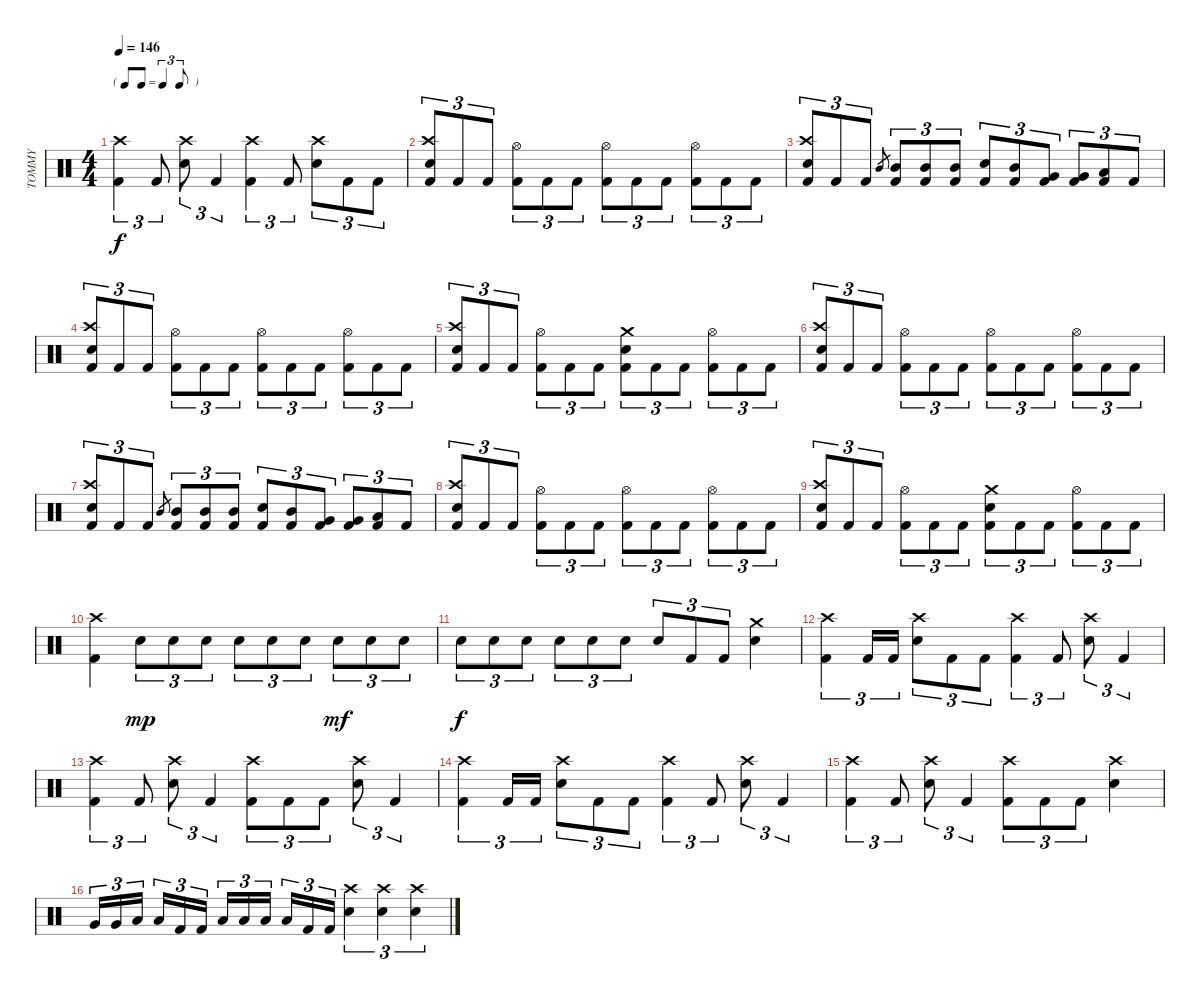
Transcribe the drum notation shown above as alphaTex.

\track ("TOMMY" "TOMMY") {instrument percussion}
\staff {score}
\articulation defaults
\ts (4 4)
\tf triplet8th
\tempo 146
\clef neutral
\ks c
("Kick (hit) 2" "Crash high (hit)").4{tu (3 2) dy f} "Kick (hit) 2".8{tu (3 2)} ("Snare (hit) 2" "Crash high (hit)").8{tu (3 2)} "Kick (hit) 2".4{tu (3 2)} ("Kick (hit) 2" "Crash high (hit)").4{tu (3 2)} "Kick (hit) 2".8{tu (3 2)} ("Snare (hit) 2" "Crash high (hit)").8{tu (3 2)} "Kick (hit) 2".8{tu (3 2)} "Kick (hit) 2".8{tu (3 2)} |
("Snare (hit) 2" "Kick (hit) 2" "Crash high (hit)").8{tu (3 2)} "Kick (hit) 2".8{tu (3 2)} "Kick (hit) 2".8{tu (3 2)} ("Kick (hit) 2" "Hi-Hat (open)").8{tu (3 2)} "Kick (hit) 2".8{tu (3 2)} "Kick (hit) 2".8{tu (3 2)} ("Kick (hit) 2" "Hi-Hat (open)").8{tu (3 2)} "Kick (hit) 2".8{tu (3 2)} "Kick (hit) 2".8{tu (3 2)} ("Kick (hit) 2" "Hi-Hat (open)").8{tu (3 2)} "Kick (hit) 2".8{tu (3 2)} "Kick (hit) 2".8{tu (3 2)} |
("Snare (hit) 2" "Kick (hit) 2" "Crash high (hit)").8{tu (3 2)} "Kick (hit) 2".8{tu (3 2)} "Kick (hit) 2".8{tu (3 2)} "Mid Tom (hit)".8{gr} ("Kick (hit) 2" "Mid Tom (hit)").8{tu (3 2)} ("Kick (hit) 2" "Mid Tom (hit)").8{tu (3 2)} ("Kick (hit) 2" "Mid Tom (hit)").8{tu (3 2)} ("Snare (hit) 2" "Kick (hit) 2").8{tu (3 2)} ("Kick (hit) 2" "Mid Tom (hit)").8{tu (3 2)} ("Kick (hit) 2" "Very Low Tom (hit)").8{tu (3 2)} ("Kick (hit) 2" "Very Low Tom (hit)").8{tu (3 2)} ("Kick (hit) 2" "Low Floor Tom (hit)").8{tu (3 2)} "Kick (hit) 2".8{tu (3 2)} |
("Snare (hit) 2" "Kick (hit) 2" "Crash high (hit)").8{tu (3 2)} "Kick (hit) 2".8{tu (3 2)} "Kick (hit) 2".8{tu (3 2)} ("Kick (hit) 2" "Hi-Hat (open)").8{tu (3 2)} "Kick (hit) 2".8{tu (3 2)} "Kick (hit) 2".8{tu (3 2)} ("Kick (hit) 2" "Hi-Hat (open)").8{tu (3 2)} "Kick (hit) 2".8{tu (3 2)} "Kick (hit) 2".8{tu (3 2)} ("Kick (hit) 2" "Hi-Hat (open)").8{tu (3 2)} "Kick (hit) 2".8{tu (3 2)} "Kick (hit) 2".8{tu (3 2)} |
("Snare (hit) 2" "Kick (hit) 2" "Crash high (hit)").8{tu (3 2)} "Kick (hit) 2".8{tu (3 2)} "Kick (hit) 2".8{tu (3 2)} ("Kick (hit) 2" "Hi-Hat (open)").8{tu (3 2)} "Kick (hit) 2".8{tu (3 2)} "Kick (hit) 2".8{tu (3 2)} ("Snare (hit) 2" "Kick (hit) 2" "Crash medium (hit)").8{tu (3 2)} "Kick (hit) 2".8{tu (3 2)} "Kick (hit) 2".8{tu (3 2)} ("Kick (hit) 2" "Hi-Hat (open)").8{tu (3 2)} "Kick (hit) 2".8{tu (3 2)} "Kick (hit) 2".8{tu (3 2)} |
("Snare (hit) 2" "Kick (hit) 2" "Crash high (hit)").8{tu (3 2)} "Kick (hit) 2".8{tu (3 2)} "Kick (hit) 2".8{tu (3 2)} ("Kick (hit) 2" "Hi-Hat (open)").8{tu (3 2)} "Kick (hit) 2".8{tu (3 2)} "Kick (hit) 2".8{tu (3 2)} ("Kick (hit) 2" "Hi-Hat (open)").8{tu (3 2)} "Kick (hit) 2".8{tu (3 2)} "Kick (hit) 2".8{tu (3 2)} ("Kick (hit) 2" "Hi-Hat (open)").8{tu (3 2)} "Kick (hit) 2".8{tu (3 2)} "Kick (hit) 2".8{tu (3 2)} |
("Snare (hit) 2" "Kick (hit) 2" "Crash high (hit)").8{tu (3 2)} "Kick (hit) 2".8{tu (3 2)} "Kick (hit) 2".8{tu (3 2)} "Mid Tom (hit)".8{gr} ("Kick (hit) 2" "Mid Tom (hit)").8{tu (3 2)} ("Kick (hit) 2" "Mid Tom (hit)").8{tu (3 2)} ("Kick (hit) 2" "Mid Tom (hit)").8{tu (3 2)} ("Snare (hit) 2" "Kick (hit) 2").8{tu (3 2)} ("Kick (hit) 2" "Mid Tom (hit)").8{tu (3 2)} ("Kick (hit) 2" "Very Low Tom (hit)").8{tu (3 2)} ("Kick (hit) 2" "Very Low Tom (hit)").8{tu (3 2)} ("Kick (hit) 2" "Low Floor Tom (hit)").8{tu (3 2)} "Kick (hit) 2".8{tu (3 2)} |
("Snare (hit) 2" "Kick (hit) 2" "Crash high (hit)").8{tu (3 2)} "Kick (hit) 2".8{tu (3 2)} "Kick (hit) 2".8{tu (3 2)} ("Kick (hit) 2" "Hi-Hat (open)").8{tu (3 2)} "Kick (hit) 2".8{tu (3 2)} "Kick (hit) 2".8{tu (3 2)} ("Kick (hit) 2" "Hi-Hat (open)").8{tu (3 2)} "Kick (hit) 2".8{tu (3 2)} "Kick (hit) 2".8{tu (3 2)} ("Kick (hit) 2" "Hi-Hat (open)").8{tu (3 2)} "Kick (hit) 2".8{tu (3 2)} "Kick (hit) 2".8{tu (3 2)} |
("Snare (hit) 2" "Kick (hit) 2" "Crash high (hit)").8{tu (3 2)} "Kick (hit) 2".8{tu (3 2)} "Kick (hit) 2".8{tu (3 2)} ("Kick (hit) 2" "Hi-Hat (open)").8{tu (3 2)} "Kick (hit) 2".8{tu (3 2)} "Kick (hit) 2".8{tu (3 2)} ("Snare (hit) 2" "Kick (hit) 2" "Crash medium (hit)").8{tu (3 2)} "Kick (hit) 2".8{tu (3 2)} "Kick (hit) 2".8{tu (3 2)} ("Kick (hit) 2" "Hi-Hat (open)").8{tu (3 2)} "Kick (hit) 2".8{tu (3 2)} "Kick (hit) 2".8{tu (3 2)} |
("Kick (hit) 2" "Crash high (hit)").4 "Snare (hit) 2".8{tu (3 2) dy mp} "Snare (hit) 2".8{tu (3 2)} "Snare (hit) 2".8{tu (3 2)} "Snare (hit) 2".8{tu (3 2)} "Snare (hit) 2".8{tu (3 2)} "Snare (hit) 2".8{tu (3 2)} "Snare (hit) 2".8{tu (3 2) dy mf} "Snare (hit) 2".8{tu (3 2)} "Snare (hit) 2".8{tu (3 2)} |
"Snare (hit) 2".8{tu (3 2) dy f} "Snare (hit) 2".8{tu (3 2)} "Snare (hit) 2".8{tu (3 2)} "Snare (hit) 2".8{tu (3 2)} "Snare (hit) 2".8{tu (3 2)} "Snare (hit) 2".8{tu (3 2)} "Snare (hit) 2".8{tu (3 2)} "Kick (hit) 2".8{tu (3 2)} "Kick (hit) 2".8{tu (3 2)} ("Snare (hit) 2" "Crash medium (hit)").4 |
("Kick (hit) 2" "Crash high (hit)").4{tu (3 2)} "Kick (hit) 2".16{tu (3 2)} "Kick (hit) 2".16{tu (3 2)} ("Snare (hit) 2" "Crash high (hit)").8{tu (3 2)} "Kick (hit) 2".8{tu (3 2)} "Kick (hit) 2".8{tu (3 2)} ("Kick (hit) 2" "Crash high (hit)").4{tu (3 2)} "Kick (hit) 2".8{tu (3 2)} ("Snare (hit) 2" "Crash high (hit)").8{tu (3 2)} "Kick (hit) 2".4{tu (3 2)} |
("Kick (hit) 2" "Crash high (hit)").4{tu (3 2)} "Kick (hit) 2".8{tu (3 2)} ("Snare (hit) 2" "Crash high (hit)").8{tu (3 2)} "Kick (hit) 2".4{tu (3 2)} ("Kick (hit) 2" "Crash high (hit)").8{tu (3 2)} "Kick (hit) 2".8{tu (3 2)} "Kick (hit) 2".8{tu (3 2)} ("Snare (hit) 2" "Crash high (hit)").8{tu (3 2)} "Kick (hit) 2".4{tu (3 2)} |
("Kick (hit) 2" "Crash high (hit)").4{tu (3 2)} "Kick (hit) 2".16{tu (3 2)} "Kick (hit) 2".16{tu (3 2)} ("Snare (hit) 2" "Crash high (hit)").8{tu (3 2)} "Kick (hit) 2".8{tu (3 2)} "Kick (hit) 2".8{tu (3 2)} ("Kick (hit) 2" "Crash high (hit)").4{tu (3 2)} "Kick (hit) 2".8{tu (3 2)} ("Snare (hit) 2" "Crash high (hit)").8{tu (3 2)} "Kick (hit) 2".4{tu (3 2)} |
("Kick (hit) 2" "Crash high (hit)").4{tu (3 2)} "Kick (hit) 2".8{tu (3 2)} ("Snare (hit) 2" "Crash high (hit)").8{tu (3 2)} "Kick (hit) 2".4{tu (3 2)} ("Kick (hit) 2" "Crash high (hit)").8{tu (3 2)} "Kick (hit) 2".8{tu (3 2)} "Kick (hit) 2".8{tu (3 2)} ("Snare (hit) 2" "Crash high (hit)").4 |
"Very Low Tom (hit)".16{tu (3 2)} "Very Low Tom (hit)".16{tu (3 2)} "Low Floor Tom (hit)".16{tu (3 2)} "Low Floor Tom (hit)".16{tu (3 2)} "Kick (hit) 2".16{tu (3 2)} "Kick (hit) 2".16{tu (3 2)} "Low Floor Tom (hit)".16{tu (3 2)} "Low Floor Tom (hit)".16{tu (3 2)} "Low Floor Tom (hit)".16{tu (3 2)} "Low Floor Tom (hit)".16{tu (3 2)} "Kick (hit) 2".16{tu (3 2)} "Kick (hit) 2".16{tu (3 2)} ("Snare (hit) 2" "Crash high (hit)").4{tu (3 2)} ("Snare (hit) 2" "Crash high (hit)").4{tu (3 2)} ("Snare (hit) 2" "Crash high (hit)").4{tu (3 2)}
